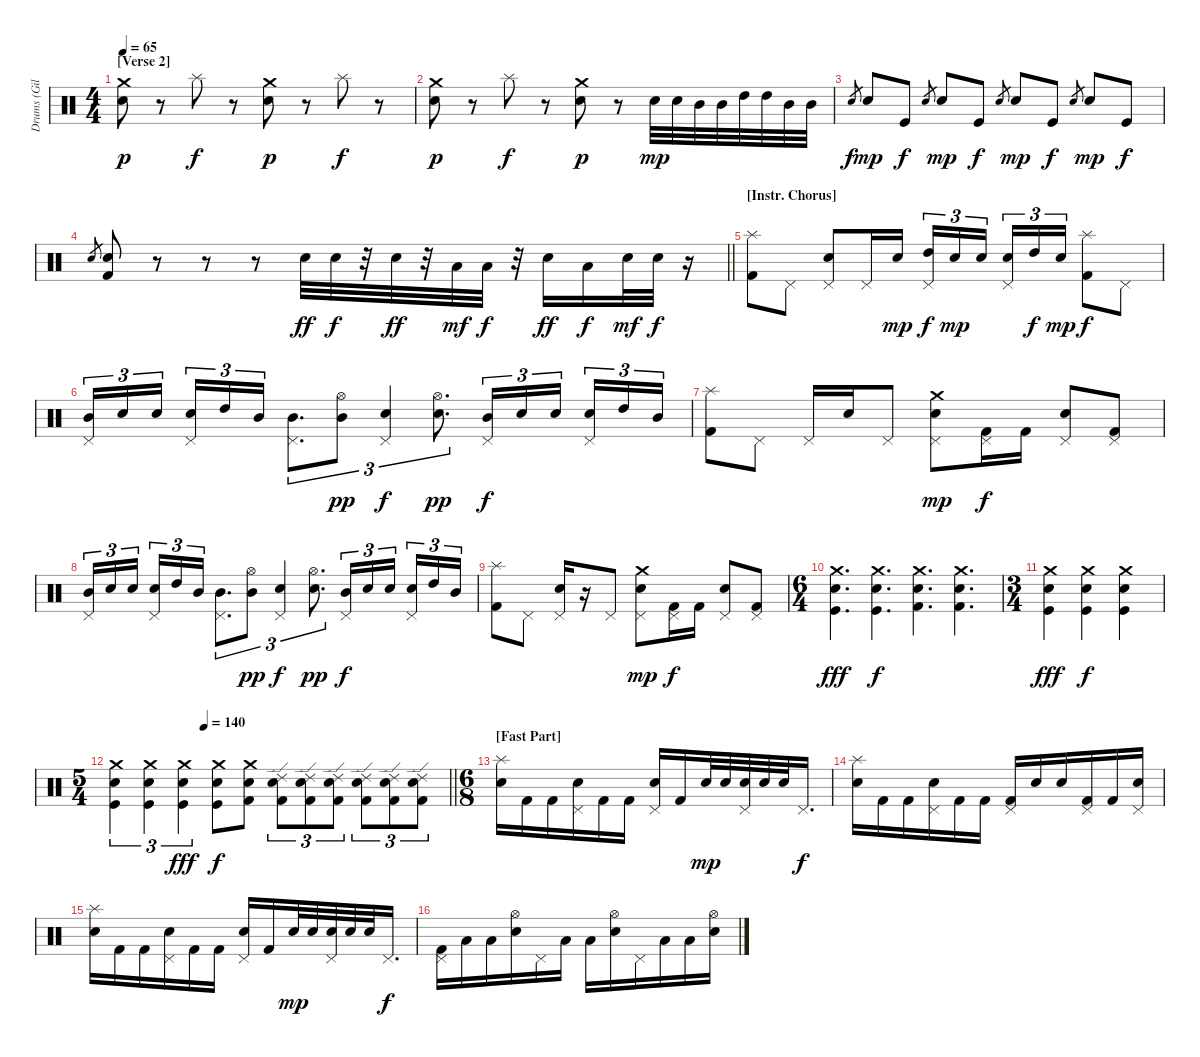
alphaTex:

\track ("Drums (Giles)" "Drums (Gil") {instrument percussion}
\staff {score}
\articulation defaults
\ts (4 4)
\section ("" "[Verse 2]")
\tempo 65
\clef neutral
\ks c
("Crash medium (hit)" "Metronome (bell)").8{dy p} r.8 "Splash (hit)".8{dy f} r.8 ("Crash medium (hit)" "Metronome (bell)").8{dy p} r.8 "Splash (hit)".8{dy f} r.8 |
("Crash medium (hit)" "Metronome (bell)").8{dy p} r.8 "Splash (hit)".8{dy f} r.8 ("Crash medium (hit)" "Metronome (bell)").8{dy p} r.8 "Electric Snare (hit)".32{dy mp} "Electric Snare (hit)".32 "Mid Tom (hit)".32 "Mid Tom (hit)".32 "High Tom (hit)".32 "High Tom (hit)".32 "Mid Tom (hit)".32 "Mid Tom (hit)".32 |
"Electric Snare (hit)".8{gr dy f} "Electric Snare (hit)".8{dy mp} "Kick (hit)".8{dy f} "Electric Snare (hit)".8{gr} "Electric Snare (hit)".8{dy mp} "Kick (hit)".8{dy f} "Electric Snare (hit)".8{gr} "Electric Snare (hit)".8{dy mp} "Kick (hit)".8{dy f} "Electric Snare (hit)".8{gr} "Electric Snare (hit)".8{dy mp} "Kick (hit)".8{dy f} |
\barLineRight lightlight "Electric Snare (hit)".8{gr}
("Electric Snare (hit)" "Kick (hit) 2").8 r.8 r.8 r.8 "Electric Snare (hit)".32{dy ff} "Electric Snare (hit)".32{dy f} r.32 "Electric Snare (hit)".32{dy ff} r.32 "Low Tom (hit)".32{dy mf} "Low Tom (hit)".32{dy f} r.32 "Electric Snare (hit)".16{dy ff} "Low Tom (hit)".16{dy f} "Electric Snare (hit)".32{dy mf} "Electric Snare (hit)".32{dy f} r.16 |
\section ("" "[Instr. Chorus]")
("Splash (hit)" "Kick (hit) 2").8 "Pedal Hi-Hat (hit)".8 ("Pedal Hi-Hat (hit)" "Electric Snare (hit)").8 "Pedal Hi-Hat (hit)".16 "Electric Snare (hit)".16{dy mp} ("Pedal Hi-Hat (hit)" "High Tom (hit)").16{tu (3 2) dy f} "Electric Snare (hit)".16{tu (3 2) dy mp} "Electric Snare (hit)".16{tu (3 2) beam splitsecondary} ("Pedal Hi-Hat (hit)" "Electric Snare (hit)").16{tu (3 2)} "High Tom (hit)".16{tu (3 2) dy f} "Electric Snare (hit)".16{tu (3 2) dy mp} ("Splash (hit)" "Kick (hit) 2").8{dy f} "Pedal Hi-Hat (hit)".8 |
("Pedal Hi-Hat (hit)" "Mid Tom (hit)").16{tu (3 2)} "Electric Snare (hit)".16{tu (3 2)} "Electric Snare (hit)".16{tu (3 2) beam splitsecondary} ("Pedal Hi-Hat (hit)" "Electric Snare (hit)").16{tu (3 2)} "High Tom (hit)".16{tu (3 2)} "Mid Tom (hit)".16{tu (3 2)} ("Pedal Hi-Hat (hit)" "Mid Tom (hit)").8{d tu (3 2)} ("Hi-Hat (open)" "Mid Tom (hit)").8{tu (3 2) dy pp} ("Pedal Hi-Hat (hit)" "Electric Snare (hit)").4{tu (3 2) dy f} ("Hi-Hat (open)" "Electric Snare (hit)").8{d tu (3 2) dy pp} ("Pedal Hi-Hat (hit)" "Mid Tom (hit)").16{tu (3 2) dy f} "Electric Snare (hit)".16{tu (3 2)} "Electric Snare (hit)".16{tu (3 2) beam splitsecondary} ("Pedal Hi-Hat (hit)" "Electric Snare (hit)").16{tu (3 2)} "High Tom (hit)".16{tu (3 2)} "Mid Tom (hit)".16{tu (3 2)} |
("Splash (hit)" "Kick (hit) 2").8 "Pedal Hi-Hat (hit)".8 "Pedal Hi-Hat (hit)".16 "Electric Snare (hit)".16 "Pedal Hi-Hat (hit)".8 ("Crash medium (hit)" "Pedal Hi-Hat (hit)" "Electric Snare (hit)").8{dy mp} ("Pedal Hi-Hat (hit)" "Kick (hit) 2").16{dy f} "Kick (hit) 2".16 ("Pedal Hi-Hat (hit)" "Electric Snare (hit)").8 ("Pedal Hi-Hat (hit)" "Kick (hit) 2").8 |
("Pedal Hi-Hat (hit)" "Mid Tom (hit)").16{tu (3 2)} "Electric Snare (hit)".16{tu (3 2)} "Electric Snare (hit)".16{tu (3 2) beam splitsecondary} ("Pedal Hi-Hat (hit)" "Electric Snare (hit)").16{tu (3 2)} "High Tom (hit)".16{tu (3 2)} "Mid Tom (hit)".16{tu (3 2)} ("Pedal Hi-Hat (hit)" "Mid Tom (hit)").8{d tu (3 2)} ("Hi-Hat (open)" "Mid Tom (hit)").8{tu (3 2) dy pp} ("Pedal Hi-Hat (hit)" "Electric Snare (hit)").4{tu (3 2) dy f} ("Hi-Hat (open)" "Electric Snare (hit)").8{d tu (3 2) dy pp} ("Pedal Hi-Hat (hit)" "Mid Tom (hit)").16{tu (3 2) dy f} "Electric Snare (hit)".16{tu (3 2)} "Electric Snare (hit)".16{tu (3 2) beam splitsecondary} ("Pedal Hi-Hat (hit)" "Electric Snare (hit)").16{tu (3 2)} "High Tom (hit)".16{tu (3 2)} "Mid Tom (hit)".16{tu (3 2)} |
("Splash (hit)" "Kick (hit) 2").8 "Pedal Hi-Hat (hit)".8 ("Pedal Hi-Hat (hit)" "Electric Snare (hit)").16 r.16 "Pedal Hi-Hat (hit)".8 ("Crash medium (hit)" "Pedal Hi-Hat (hit)" "Electric Snare (hit)").8{dy mp} ("Pedal Hi-Hat (hit)" "Kick (hit) 2").16{dy f} "Kick (hit) 2".16 ("Pedal Hi-Hat (hit)" "Electric Snare (hit)").8 ("Pedal Hi-Hat (hit)" "Kick (hit) 2").8 |
\ts (6 4)
("Crash medium (hit)" "Electric Snare (hit)" "Kick (hit)").4{d dy fff} ("Crash medium (hit)" "Electric Snare (hit)" "Kick (hit)").4{d dy f} ("Crash medium (hit)" "Electric Snare (hit)" "Kick (hit) 2").4{d} ("Crash medium (hit)" "Electric Snare (hit)" "Kick (hit) 2").4{d} |
\ts (3 4)
("Crash medium (hit)" "Electric Snare (hit)" "Kick (hit)").4{dy fff} ("Crash medium (hit)" "Electric Snare (hit)" "Kick (hit)").4{dy f} ("Crash medium (hit)" "Electric Snare (hit)" "Kick (hit)").4 |
\ts (5 4)
\tempo (140 0.26666666666666666)
\barLineRight lightlight
("Crash medium (hit)" "Electric Snare (hit)" "Kick (hit)").4{tu (3 2)} ("Crash medium (hit)" "Electric Snare (hit)" "Kick (hit)").4{tu (3 2)} ("Crash medium (hit)" "Electric Snare (hit)" "Kick (hit)").4{tu (3 2) dy fff} ("Crash medium (hit)" "Electric Snare (hit)" "Kick (hit)").8{dy f} ("Crash medium (hit)" "Electric Snare (hit)" "Kick (hit) 2").8 ("Ride (edge) 2" "Electric Snare (hit)" "Kick (hit) 2").8{tu (3 2)} ("Ride (edge) 2" "Electric Snare (hit)" "Kick (hit) 2").8{tu (3 2)} ("Ride (edge) 2" "Electric Snare (hit)" "Kick (hit) 2").8{tu (3 2)} ("Ride (edge) 2" "Electric Snare (hit)" "Kick (hit) 2").8{tu (3 2)} ("Ride (edge) 2" "Electric Snare (hit)" "Kick (hit) 2").8{tu (3 2)} ("Ride (edge) 2" "Electric Snare (hit)" "Kick (hit) 2").8{tu (3 2)} |
\ts (6 8)
\section ("" "[Fast Part]")
("Splash (hit)" "Electric Snare (hit)").16 "Kick (hit) 2".16 "Kick (hit) 2".16 ("Pedal Hi-Hat (hit)" "Electric Snare (hit)").16 "Kick (hit) 2".16 "Kick (hit) 2".16 ("Pedal Hi-Hat (hit)" "Electric Snare (hit)").16 "Kick (hit) 2".16 "Electric Snare (hit)".32{dy mp} "Electric Snare (hit)".32 ("Pedal Hi-Hat (hit)" "Electric Snare (hit)").32 "Electric Snare (hit)".32 "Electric Snare (hit)".32 "Pedal Hi-Hat (hit)".16{d dy f} |
("Splash (hit)" "Electric Snare (hit)").16 "Kick (hit) 2".16 "Kick (hit) 2".16 ("Pedal Hi-Hat (hit)" "Electric Snare (hit)").16 "Kick (hit) 2".16 "Kick (hit) 2".16 ("Pedal Hi-Hat (hit)" "Kick (hit) 2").16 "Electric Snare (hit)".16 "Electric Snare (hit)".16 ("Pedal Hi-Hat (hit)" "Kick (hit) 2").16 "Kick (hit) 2".16 ("Pedal Hi-Hat (hit)" "Electric Snare (hit)").16 |
("Splash (hit)" "Electric Snare (hit)").16 "Kick (hit) 2".16 "Kick (hit) 2".16 ("Pedal Hi-Hat (hit)" "Electric Snare (hit)").16 "Kick (hit) 2".16 "Kick (hit) 2".16 ("Pedal Hi-Hat (hit)" "Electric Snare (hit)").16 "Kick (hit) 2".16 "Electric Snare (hit)".32{dy mp} "Electric Snare (hit)".32 ("Pedal Hi-Hat (hit)" "Electric Snare (hit)").32 "Electric Snare (hit)".32 "Electric Snare (hit)".32 "Pedal Hi-Hat (hit)".16{d dy f} |
("Pedal Hi-Hat (hit)" "Kick (hit) 2").16 "Low Tom (hit)".16 "Low Tom (hit)".16 ("Hi-Hat (open)" "Electric Snare (hit)").16 "Pedal Hi-Hat (hit)".16 "Low Tom (hit)".16 "Low Tom (hit)".16 ("Hi-Hat (open)" "Electric Snare (hit)").16 "Pedal Hi-Hat (hit)".16 "Low Tom (hit)".16 "Low Tom (hit)".16 ("Hi-Hat (open)" "Electric Snare (hit)").16
